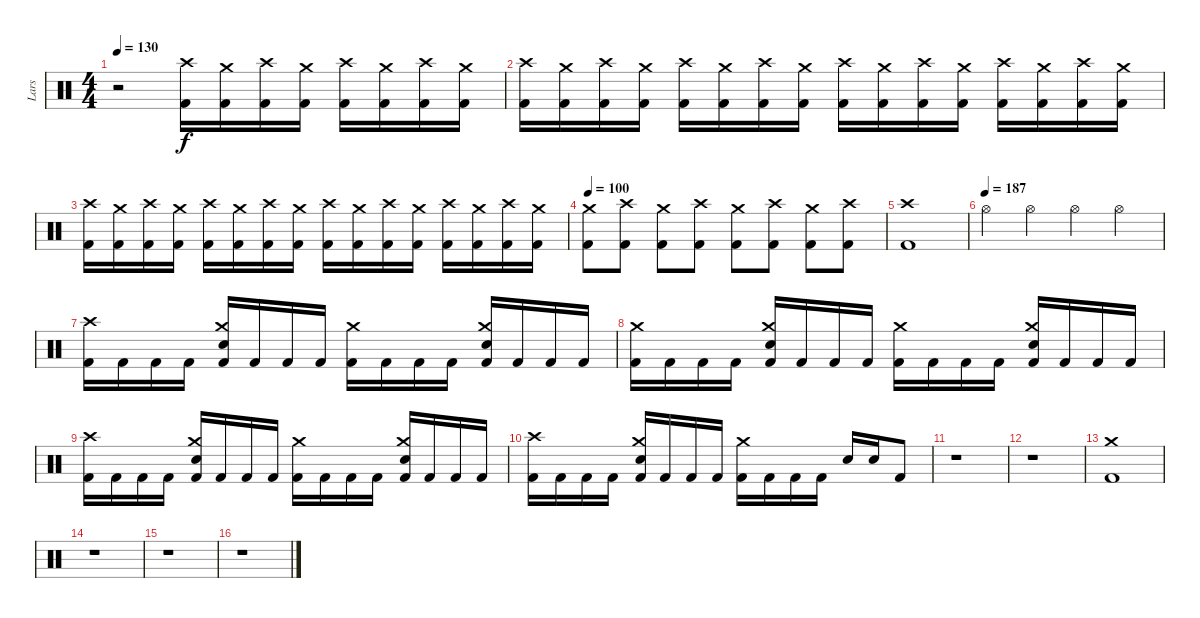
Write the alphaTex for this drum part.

\track ("Lars" "Lars") {instrument percussion}
\staff {score}
\articulation defaults
\ts (4 4)
\tempo 130
\clef neutral
\ks c
r.2{dy f} ("Crash high (hit)" "Kick (hit) 2").16{volume 4} ("Crash medium (hit)" "Kick (hit) 2").16{volume 11} ("Crash high (hit)" "Kick (hit) 2").16 ("Crash medium (hit)" "Kick (hit) 2").16 ("Crash high (hit)" "Kick (hit) 2").16 ("Crash medium (hit)" "Kick (hit) 2").16 ("Crash high (hit)" "Kick (hit) 2").16 ("Crash medium (hit)" "Kick (hit) 2").16 |
("Crash high (hit)" "Kick (hit) 2").16 ("Crash medium (hit)" "Kick (hit) 2").16 ("Crash high (hit)" "Kick (hit) 2").16 ("Crash medium (hit)" "Kick (hit) 2").16 ("Crash high (hit)" "Kick (hit) 2").16 ("Crash medium (hit)" "Kick (hit) 2").16 ("Crash high (hit)" "Kick (hit) 2").16 ("Crash medium (hit)" "Kick (hit) 2").16 ("Crash high (hit)" "Kick (hit) 2").16 ("Crash medium (hit)" "Kick (hit) 2").16 ("Crash high (hit)" "Kick (hit) 2").16 ("Crash medium (hit)" "Kick (hit) 2").16 ("Crash high (hit)" "Kick (hit) 2").16 ("Crash medium (hit)" "Kick (hit) 2").16 ("Crash high (hit)" "Kick (hit) 2").16 ("Crash medium (hit)" "Kick (hit) 2").16 |
("Crash high (hit)" "Kick (hit) 2").16 ("Crash medium (hit)" "Kick (hit) 2").16 ("Crash high (hit)" "Kick (hit) 2").16 ("Crash medium (hit)" "Kick (hit) 2").16 ("Crash high (hit)" "Kick (hit) 2").16 ("Crash medium (hit)" "Kick (hit) 2").16 ("Crash high (hit)" "Kick (hit) 2").16 ("Crash medium (hit)" "Kick (hit) 2").16 ("Crash high (hit)" "Kick (hit) 2").16 ("Crash medium (hit)" "Kick (hit) 2").16 ("Crash high (hit)" "Kick (hit) 2").16 ("Crash medium (hit)" "Kick (hit) 2").16 ("Crash high (hit)" "Kick (hit) 2").16 ("Crash medium (hit)" "Kick (hit) 2").16 ("Crash high (hit)" "Kick (hit) 2").16 ("Crash medium (hit)" "Kick (hit) 2").16 |
\tempo 100
("Crash medium (hit)" "Kick (hit) 2").8 ("Crash high (hit)" "Kick (hit) 2").8 ("Crash medium (hit)" "Kick (hit) 2").8 ("Crash high (hit)" "Kick (hit) 2").8 ("Crash medium (hit)" "Kick (hit) 2").8 ("Crash high (hit)" "Kick (hit) 2").8 ("Crash medium (hit)" "Kick (hit) 2").8 ("Crash high (hit)" "Kick (hit) 2").8 |
("Crash high (hit)" "Kick (hit) 2").1 |
\tempo (187)
"Hi-Hat (open)".4 "Hi-Hat (open)".4 "Hi-Hat (open)".4 "Hi-Hat (open)".4 |
("Crash high (hit)" "Kick (hit) 2").16 "Kick (hit) 2".16 "Kick (hit) 2".16 "Kick (hit) 2".16 ("Crash medium (hit)" "Snare (hit) 2" "Kick (hit) 2").16 "Kick (hit) 2".16 "Kick (hit) 2".16 "Kick (hit) 2".16 ("Crash medium (hit)" "Kick (hit) 2").16 "Kick (hit) 2".16 "Kick (hit) 2".16 "Kick (hit) 2".16 ("Crash medium (hit)" "Snare (hit) 2" "Kick (hit) 2").16 "Kick (hit) 2".16 "Kick (hit) 2".16 "Kick (hit) 2".16 |
("Crash medium (hit)" "Kick (hit) 2").16 "Kick (hit) 2".16 "Kick (hit) 2".16 "Kick (hit) 2".16 ("Crash medium (hit)" "Snare (hit) 2" "Kick (hit) 2").16 "Kick (hit) 2".16 "Kick (hit) 2".16 "Kick (hit) 2".16 ("Crash medium (hit)" "Kick (hit) 2").16 "Kick (hit) 2".16 "Kick (hit) 2".16 "Kick (hit) 2".16 ("Crash medium (hit)" "Snare (hit) 2" "Kick (hit) 2").16 "Kick (hit) 2".16 "Kick (hit) 2".16 "Kick (hit) 2".16 |
("Crash high (hit)" "Kick (hit) 2").16 "Kick (hit) 2".16 "Kick (hit) 2".16 "Kick (hit) 2".16 ("Crash medium (hit)" "Snare (hit) 2" "Kick (hit) 2").16 "Kick (hit) 2".16 "Kick (hit) 2".16 "Kick (hit) 2".16 ("Crash medium (hit)" "Kick (hit) 2").16 "Kick (hit) 2".16 "Kick (hit) 2".16 "Kick (hit) 2".16 ("Crash medium (hit)" "Snare (hit) 2" "Kick (hit) 2").16 "Kick (hit) 2".16 "Kick (hit) 2".16 "Kick (hit) 2".16 |
("Crash high (hit)" "Kick (hit) 2").16 "Kick (hit) 2".16 "Kick (hit) 2".16 "Kick (hit) 2".16 ("Crash medium (hit)" "Snare (hit) 2" "Kick (hit) 2").16 "Kick (hit) 2".16 "Kick (hit) 2".16 "Kick (hit) 2".16 ("Crash medium (hit)" "Kick (hit) 2").16 "Kick (hit) 2".16 "Kick (hit) 2".16 "Kick (hit) 2".16 "Snare (hit) 2".16 "Snare (hit) 2".16 "Kick (hit) 2".8 |
r.1 |
r.1 |
("Crash medium (hit)" "Kick (hit) 2").1 |
r.1 |
r.1 |
r.1
